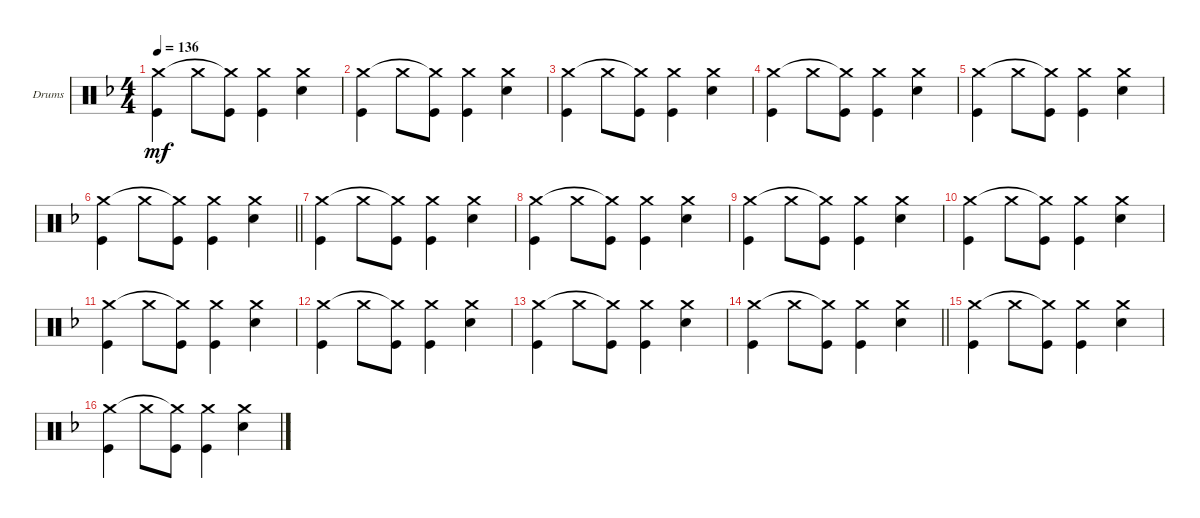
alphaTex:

\bracketExtendMode groupsimilarinstruments
\firstSystemTrackNameOrientation horizontal
\otherSystemsTrackNameOrientation horizontal
\track ("Drumkit" "Drums") {instrument percussion}
\staff {score}
\articulation defaults
\ts (4 4)
\tempo 136
\clef neutral
\scale
0.333333
\ks f
("Kick (hit)" "Crash medium (hit)").4{dy mf} "Crash medium (hit)".8 ("Kick (hit)" "Crash medium (hit)"{t}).8 ("Kick (hit)" "Crash medium (hit)").4 ("Snare (hit) 2" "Crash medium (hit)").4 |
\scale
0.333333 ("Kick (hit)" "Crash medium (hit)").4 "Crash medium (hit)".8 ("Kick (hit)" "Crash medium (hit)"{t}).8 ("Kick (hit)" "Crash medium (hit)").4 ("Snare (hit) 2" "Crash medium (hit)").4 |
\scale
0.333333 ("Kick (hit)" "Crash medium (hit)").4 "Crash medium (hit)".8 ("Kick (hit)" "Crash medium (hit)"{t}).8 ("Kick (hit)" "Crash medium (hit)").4 ("Snare (hit) 2" "Crash medium (hit)").4 |
\scale
0.333333 ("Kick (hit)" "Crash medium (hit)").4 "Crash medium (hit)".8 ("Kick (hit)" "Crash medium (hit)"{t}).8 ("Kick (hit)" "Crash medium (hit)").4 ("Snare (hit) 2" "Crash medium (hit)").4 |
\scale
0.333333 ("Kick (hit)" "Crash medium (hit)").4 "Crash medium (hit)".8 ("Kick (hit)" "Crash medium (hit)"{t}).8 ("Kick (hit)" "Crash medium (hit)").4 ("Snare (hit) 2" "Crash medium (hit)").4 |
\scale
0.333333
\barLineRight lightlight
("Kick (hit)" "Crash medium (hit)").4 "Crash medium (hit)".8 ("Kick (hit)" "Crash medium (hit)"{t}).8 ("Kick (hit)" "Crash medium (hit)").4 ("Snare (hit) 2" "Crash medium (hit)").4 |
("Kick (hit)" "Crash medium (hit)").4 "Crash medium (hit)".8 ("Kick (hit)" "Crash medium (hit)"{t}).8 ("Kick (hit)" "Crash medium (hit)").4 ("Snare (hit) 2" "Crash medium (hit)").4 |
("Kick (hit)" "Crash medium (hit)").4 "Crash medium (hit)".8 ("Kick (hit)" "Crash medium (hit)"{t}).8 ("Kick (hit)" "Crash medium (hit)").4 ("Snare (hit) 2" "Crash medium (hit)").4 |
("Kick (hit)" "Crash medium (hit)").4 "Crash medium (hit)".8 ("Kick (hit)" "Crash medium (hit)"{t}).8 ("Kick (hit)" "Crash medium (hit)").4 ("Snare (hit) 2" "Crash medium (hit)").4 |
("Kick (hit)" "Crash medium (hit)").4 "Crash medium (hit)".8 ("Kick (hit)" "Crash medium (hit)"{t}).8 ("Kick (hit)" "Crash medium (hit)").4 ("Snare (hit) 2" "Crash medium (hit)").4 |
("Kick (hit)" "Crash medium (hit)").4 "Crash medium (hit)".8 ("Kick (hit)" "Crash medium (hit)"{t}).8 ("Kick (hit)" "Crash medium (hit)").4 ("Snare (hit) 2" "Crash medium (hit)").4 |
("Kick (hit)" "Crash medium (hit)").4 "Crash medium (hit)".8 ("Kick (hit)" "Crash medium (hit)"{t}).8 ("Kick (hit)" "Crash medium (hit)").4 ("Snare (hit) 2" "Crash medium (hit)").4 |
("Kick (hit)" "Crash medium (hit)").4 "Crash medium (hit)".8 ("Kick (hit)" "Crash medium (hit)"{t}).8 ("Kick (hit)" "Crash medium (hit)").4 ("Snare (hit) 2" "Crash medium (hit)").4 |
\barLineRight lightlight
("Kick (hit)" "Crash medium (hit)").4 "Crash medium (hit)".8 ("Kick (hit)" "Crash medium (hit)"{t}).8 ("Kick (hit)" "Crash medium (hit)").4 ("Snare (hit) 2" "Crash medium (hit)").4 |
\scale
0.333333 ("Kick (hit)" "Crash medium (hit)").4 "Crash medium (hit)".8 ("Kick (hit)" "Crash medium (hit)"{t}).8 ("Kick (hit)" "Crash medium (hit)").4 ("Snare (hit) 2" "Crash medium (hit)").4 |
\scale
0.333333 ("Kick (hit)" "Crash medium (hit)").4 "Crash medium (hit)".8 ("Kick (hit)" "Crash medium (hit)"{t}).8 ("Kick (hit)" "Crash medium (hit)").4 ("Snare (hit) 2" "Crash medium (hit)").4
